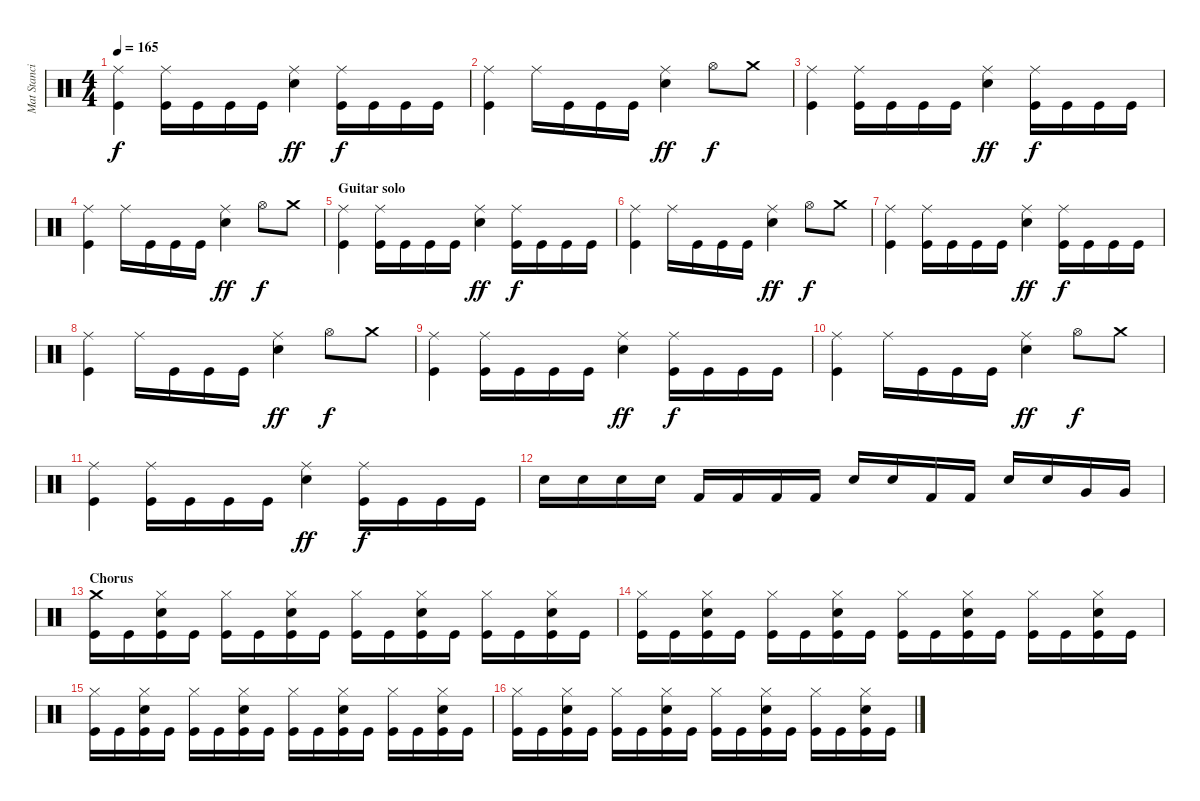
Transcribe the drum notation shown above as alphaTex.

\track ("Mat Stancioiu (Drums)" "Mat Stanci") {instrument percussion}
\staff {score}
\articulation defaults
\ts (4 4)
\tempo 165
\clef neutral
\ks c
("Ride (middle)" "Kick (hit)").4{dy f} ("Ride (middle)" "Kick (hit)").16 "Kick (hit)".16 "Kick (hit)".16 "Kick (hit)".16 ("Ride (middle)" "Electric Snare (hit)").4{dy ff} ("Ride (middle)" "Kick (hit)").16{dy f} "Kick (hit)".16 "Kick (hit)".16 "Kick (hit)".16 |
("Ride (middle)" "Kick (hit)").4 "Ride (middle)".16 "Kick (hit)".16 "Kick (hit)".16 "Kick (hit)".16 ("Ride (middle)" "Electric Snare (hit)").4{dy ff} "Hi-Hat (open)".8{dy f} "Crash medium (hit)".8 |
("Ride (middle)" "Kick (hit)").4 ("Ride (middle)" "Kick (hit)").16 "Kick (hit)".16 "Kick (hit)".16 "Kick (hit)".16 ("Ride (middle)" "Electric Snare (hit)").4{dy ff} ("Ride (middle)" "Kick (hit)").16{dy f} "Kick (hit)".16 "Kick (hit)".16 "Kick (hit)".16 |
("Ride (middle)" "Kick (hit)").4 "Ride (middle)".16 "Kick (hit)".16 "Kick (hit)".16 "Kick (hit)".16 ("Ride (middle)" "Electric Snare (hit)").4{dy ff} "Hi-Hat (open)".8{dy f} "Crash medium (hit)".8 |
\section ("" "Guitar solo")
("Ride (middle)" "Kick (hit)").4 ("Ride (middle)" "Kick (hit)").16 "Kick (hit)".16 "Kick (hit)".16 "Kick (hit)".16 ("Ride (middle)" "Electric Snare (hit)").4{dy ff} ("Ride (middle)" "Kick (hit)").16{dy f} "Kick (hit)".16 "Kick (hit)".16 "Kick (hit)".16 |
("Ride (middle)" "Kick (hit)").4 "Ride (middle)".16 "Kick (hit)".16 "Kick (hit)".16 "Kick (hit)".16 ("Ride (middle)" "Electric Snare (hit)").4{dy ff} "Hi-Hat (open)".8{dy f} "Crash medium (hit)".8 |
("Ride (middle)" "Kick (hit)").4 ("Ride (middle)" "Kick (hit)").16 "Kick (hit)".16 "Kick (hit)".16 "Kick (hit)".16 ("Ride (middle)" "Electric Snare (hit)").4{dy ff} ("Ride (middle)" "Kick (hit)").16{dy f} "Kick (hit)".16 "Kick (hit)".16 "Kick (hit)".16 |
("Ride (middle)" "Kick (hit)").4 "Ride (middle)".16 "Kick (hit)".16 "Kick (hit)".16 "Kick (hit)".16 ("Ride (middle)" "Electric Snare (hit)").4{dy ff} "Hi-Hat (open)".8{dy f} "Crash medium (hit)".8 |
("Ride (middle)" "Kick (hit)").4 ("Ride (middle)" "Kick (hit)").16 "Kick (hit)".16 "Kick (hit)".16 "Kick (hit)".16 ("Ride (middle)" "Electric Snare (hit)").4{dy ff} ("Ride (middle)" "Kick (hit)").16{dy f} "Kick (hit)".16 "Kick (hit)".16 "Kick (hit)".16 |
("Ride (middle)" "Kick (hit)").4 "Ride (middle)".16 "Kick (hit)".16 "Kick (hit)".16 "Kick (hit)".16 ("Ride (middle)" "Electric Snare (hit)").4{dy ff} "Hi-Hat (open)".8{dy f} "Crash medium (hit)".8 |
("Ride (middle)" "Kick (hit)").4 ("Ride (middle)" "Kick (hit)").16 "Kick (hit)".16 "Kick (hit)".16 "Kick (hit)".16 ("Ride (middle)" "Electric Snare (hit)").4{dy ff} ("Ride (middle)" "Kick (hit)").16{dy f} "Kick (hit)".16 "Kick (hit)".16 "Kick (hit)".16 |
"Electric Snare (hit)".16 "Electric Snare (hit)".16 "Electric Snare (hit)".16 "Electric Snare (hit)".16 "Kick (hit) 2".16 "Kick (hit) 2".16 "Kick (hit) 2".16 "Kick (hit) 2".16 "Electric Snare (hit)".16 "Electric Snare (hit)".16 "Kick (hit) 2".16 "Kick (hit) 2".16 "Electric Snare (hit)".16 "Electric Snare (hit)".16 "Very Low Tom (hit)".16 "Very Low Tom (hit)".16 |
\section ("" "Chorus")
("Crash medium (hit)" "Kick (hit)").16 "Kick (hit)".16 ("Hi-Hat (closed)" "Electric Snare (hit)" "Kick (hit)").16 "Kick (hit)".16 ("Hi-Hat (closed)" "Kick (hit)").16 "Kick (hit)".16 ("Hi-Hat (closed)" "Electric Snare (hit)" "Kick (hit)").16 "Kick (hit)".16 ("Hi-Hat (closed)" "Kick (hit)").16 "Kick (hit)".16 ("Hi-Hat (closed)" "Electric Snare (hit)" "Kick (hit)").16 "Kick (hit)".16 ("Hi-Hat (closed)" "Kick (hit)").16 "Kick (hit)".16 ("Hi-Hat (closed)" "Electric Snare (hit)" "Kick (hit)").16 "Kick (hit)".16 |
("Hi-Hat (closed)" "Kick (hit)").16 "Kick (hit)".16 ("Hi-Hat (closed)" "Electric Snare (hit)" "Kick (hit)").16 "Kick (hit)".16 ("Hi-Hat (closed)" "Kick (hit)").16 "Kick (hit)".16 ("Hi-Hat (closed)" "Electric Snare (hit)" "Kick (hit)").16 "Kick (hit)".16 ("Hi-Hat (closed)" "Kick (hit)").16 "Kick (hit)".16 ("Hi-Hat (closed)" "Electric Snare (hit)" "Kick (hit)").16 "Kick (hit)".16 ("Hi-Hat (closed)" "Kick (hit)").16 "Kick (hit)".16 ("Hi-Hat (closed)" "Electric Snare (hit)" "Kick (hit)").16 "Kick (hit)".16 |
("Hi-Hat (closed)" "Kick (hit)").16 "Kick (hit)".16 ("Hi-Hat (closed)" "Electric Snare (hit)" "Kick (hit)").16 "Kick (hit)".16 ("Hi-Hat (closed)" "Kick (hit)").16 "Kick (hit)".16 ("Hi-Hat (closed)" "Electric Snare (hit)" "Kick (hit)").16 "Kick (hit)".16 ("Hi-Hat (closed)" "Kick (hit)").16 "Kick (hit)".16 ("Hi-Hat (closed)" "Electric Snare (hit)" "Kick (hit)").16 "Kick (hit)".16 ("Hi-Hat (closed)" "Kick (hit)").16 "Kick (hit)".16 ("Hi-Hat (closed)" "Electric Snare (hit)" "Kick (hit)").16 "Kick (hit)".16 |
("Hi-Hat (closed)" "Kick (hit)").16 "Kick (hit)".16 ("Hi-Hat (closed)" "Electric Snare (hit)" "Kick (hit)").16 "Kick (hit)".16 ("Hi-Hat (closed)" "Kick (hit)").16 "Kick (hit)".16 ("Hi-Hat (closed)" "Electric Snare (hit)" "Kick (hit)").16 "Kick (hit)".16 ("Hi-Hat (closed)" "Kick (hit)").16 "Kick (hit)".16 ("Hi-Hat (closed)" "Electric Snare (hit)" "Kick (hit)").16 "Kick (hit)".16 ("Hi-Hat (closed)" "Kick (hit)").16 "Kick (hit)".16 ("Hi-Hat (closed)" "Electric Snare (hit)" "Kick (hit)").16 "Kick (hit)".16
